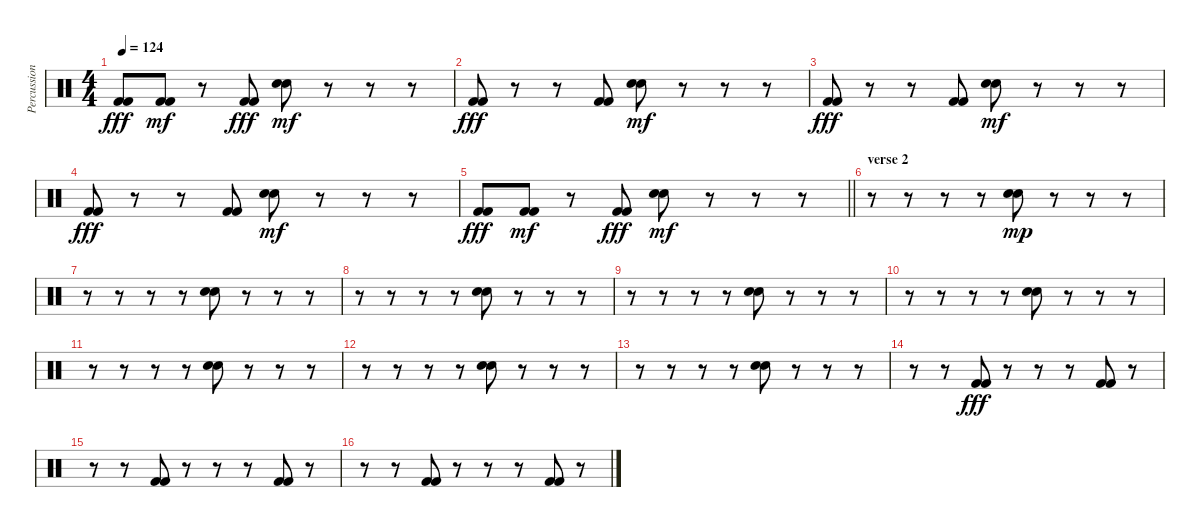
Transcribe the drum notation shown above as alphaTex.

\track ("Percussions" "Percussion") {instrument percussion}
\staff {score}
\articulation defaults
\ts (4 4)
\tempo 124
\clef neutral
\ks c
("Kick (hit) 2" "Kick (hit) 2").8{dy fff} ("Kick (hit) 2" "Kick (hit) 2").8{dy mf} r.8 ("Kick (hit) 2" "Kick (hit) 2").8{dy fff} ("Hand Clap (hit)" "Electric Snare (hit)").8{dy mf} r.8 r.8 r.8 |
("Kick (hit) 2" "Kick (hit) 2").8{dy fff} r.8 r.8 ("Kick (hit) 2" "Kick (hit) 2").8 ("Hand Clap (hit)" "Electric Snare (hit)").8{dy mf} r.8 r.8 r.8 |
("Kick (hit) 2" "Kick (hit) 2").8{dy fff} r.8 r.8 ("Kick (hit) 2" "Kick (hit) 2").8 ("Hand Clap (hit)" "Electric Snare (hit)").8{dy mf} r.8 r.8 r.8 |
("Kick (hit) 2" "Kick (hit) 2").8{dy fff} r.8 r.8 ("Kick (hit) 2" "Kick (hit) 2").8 ("Hand Clap (hit)" "Electric Snare (hit)").8{dy mf} r.8 r.8 r.8 |
\barLineRight lightlight
("Kick (hit) 2" "Kick (hit) 2").8{dy fff} ("Kick (hit) 2" "Kick (hit) 2").8{dy mf} r.8 ("Kick (hit) 2" "Kick (hit) 2").8{dy fff} ("Hand Clap (hit)" "Electric Snare (hit)").8{dy mf} r.8 r.8 r.8 |
\section ("" "verse 2")
r.8 r.8 r.8 r.8 ("Hand Clap (hit)" "Snare (hit) 2").8{dy mp} r.8 r.8 r.8 |
r.8 r.8 r.8 r.8 ("Hand Clap (hit)" "Snare (hit) 2").8 r.8 r.8 r.8 |
r.8 r.8 r.8 r.8 ("Hand Clap (hit)" "Snare (hit) 2").8 r.8 r.8 r.8 |
r.8 r.8 r.8 r.8 ("Hand Clap (hit)" "Snare (hit) 2").8 r.8 r.8 r.8 |
r.8 r.8 r.8 r.8 ("Hand Clap (hit)" "Snare (hit) 2").8 r.8 r.8 r.8 |
r.8 r.8 r.8 r.8 ("Hand Clap (hit)" "Snare (hit) 2").8 r.8 r.8 r.8 |
r.8 r.8 r.8 r.8 ("Hand Clap (hit)" "Snare (hit) 2").8 r.8 r.8 r.8 |
r.8 r.8 r.8 r.8 ("Hand Clap (hit)" "Snare (hit) 2").8 r.8 r.8 r.8 |
r.8 r.8 ("Kick (hit) 2" "Kick (hit) 2").8{dy fff} r.8 r.8 r.8 ("Kick (hit) 2" "Kick (hit) 2").8 r.8 |
r.8 r.8 ("Kick (hit) 2" "Kick (hit) 2").8 r.8 r.8 r.8 ("Kick (hit) 2" "Kick (hit) 2").8 r.8 |
r.8 r.8 ("Kick (hit) 2" "Kick (hit) 2").8 r.8 r.8 r.8 ("Kick (hit) 2" "Kick (hit) 2").8 r.8
